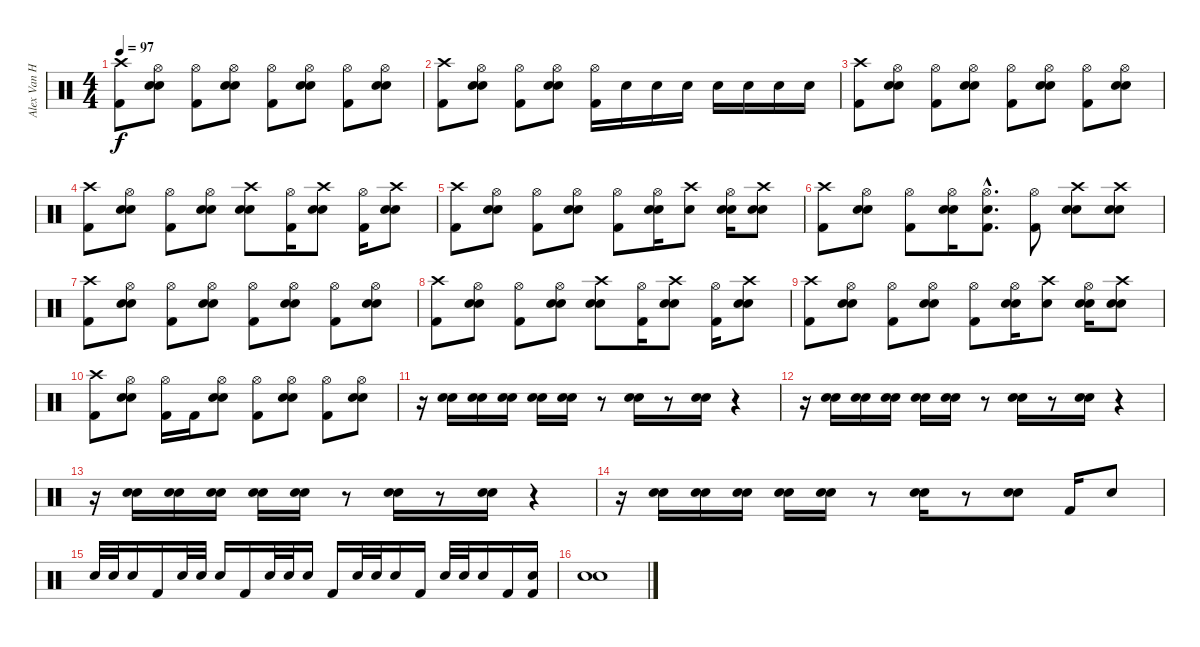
\track ("Alex Van Halen" "Alex Van H") {instrument percussion}
\staff {score}
\articulation defaults
\ts (4 4)
\tempo 97
\clef neutral
\ks c
("Crash high (hit)" "Kick (hit) 2").8{dy f} ("Hi-Hat (open)" "Snare (hit) 2" "Electric Snare (hit)").8 ("Hi-Hat (open)" "Kick (hit) 2").8 ("Hi-Hat (open)" "Snare (hit) 2" "Electric Snare (hit)").8 ("Hi-Hat (open)" "Kick (hit) 2").8 ("Hi-Hat (open)" "Snare (hit) 2" "Electric Snare (hit)").8 ("Hi-Hat (open)" "Kick (hit) 2").8 ("Hi-Hat (open)" "Snare (hit) 2" "Electric Snare (hit)").8 |
("Crash high (hit)" "Kick (hit) 2").8 ("Hi-Hat (open)" "Snare (hit) 2" "Electric Snare (hit)").8 ("Hi-Hat (open)" "Kick (hit) 2").8 ("Hi-Hat (open)" "Snare (hit) 2" "Electric Snare (hit)").8 ("Hi-Hat (open)" "Kick (hit) 2").16 "Snare (hit) 2".16 "Electric Snare (hit)".16 "Electric Snare (hit)".16 "Electric Snare (hit)".16 "Electric Snare (hit)".16 "Electric Snare (hit)".16 "Electric Snare (hit)".16 |
("Crash high (hit)" "Kick (hit) 2").8 ("Hi-Hat (open)" "Snare (hit) 2" "Electric Snare (hit)").8 ("Hi-Hat (open)" "Kick (hit) 2").8 ("Hi-Hat (open)" "Snare (hit) 2" "Electric Snare (hit)").8 ("Hi-Hat (open)" "Kick (hit) 2").8 ("Hi-Hat (open)" "Snare (hit) 2" "Electric Snare (hit)").8 ("Hi-Hat (open)" "Kick (hit) 2").8 ("Hi-Hat (open)" "Snare (hit) 2" "Electric Snare (hit)").8 |
("Crash high (hit)" "Kick (hit) 2").8 ("Hi-Hat (open)" "Snare (hit) 2" "Electric Snare (hit)").8 ("Hi-Hat (open)" "Kick (hit) 2").8 ("Hi-Hat (open)" "Snare (hit) 2" "Electric Snare (hit)").8 ("Crash high (hit)" "Snare (hit) 2" "Electric Snare (hit)").8 ("Hi-Hat (open)" "Kick (hit) 2").16 ("Crash high (hit)" "Snare (hit) 2" "Electric Snare (hit)").8 ("Hi-Hat (open)" "Kick (hit) 2").16 ("Crash high (hit)" "Snare (hit) 2" "Electric Snare (hit)").8 |
("Crash high (hit)" "Kick (hit) 2").8 ("Hi-Hat (open)" "Snare (hit) 2" "Electric Snare (hit)").8 ("Hi-Hat (open)" "Kick (hit) 2").8 ("Hi-Hat (open)" "Snare (hit) 2" "Electric Snare (hit)").8 ("Hi-Hat (open)" "Kick (hit) 2").8 ("Hi-Hat (open)" "Snare (hit) 2" "Electric Snare (hit)").16 ("Crash high (hit)" "Electric Snare (hit)").8 ("Hi-Hat (open)" "Snare (hit) 2" "Electric Snare (hit)").16 ("Crash high (hit)" "Snare (hit) 2" "Electric Snare (hit)").8 |
("Crash high (hit)" "Kick (hit) 2").8 ("Hi-Hat (open)" "Snare (hit) 2" "Electric Snare (hit)").8 ("Hi-Hat (open)" "Kick (hit) 2").8 ("Hi-Hat (open)" "Snare (hit) 2" "Electric Snare (hit)").16 ("Hi-Hat (open)"{hac} "Electric Snare (hit)"{hac} "Kick (hit) 2"{hac}).8{d} ("Hi-Hat (open)" "Kick (hit) 2").8 ("Crash high (hit)" "Snare (hit) 2" "Electric Snare (hit)").8 ("Crash high (hit)" "Snare (hit) 2" "Electric Snare (hit)").8 |
("Crash high (hit)" "Kick (hit) 2").8 ("Hi-Hat (open)" "Snare (hit) 2" "Electric Snare (hit)").8 ("Hi-Hat (open)" "Kick (hit) 2").8 ("Hi-Hat (open)" "Snare (hit) 2" "Electric Snare (hit)").8 ("Hi-Hat (open)" "Kick (hit) 2").8 ("Hi-Hat (open)" "Snare (hit) 2" "Electric Snare (hit)").8 ("Hi-Hat (open)" "Kick (hit) 2").8 ("Hi-Hat (open)" "Snare (hit) 2" "Electric Snare (hit)").8 |
("Crash high (hit)" "Kick (hit) 2").8 ("Hi-Hat (open)" "Snare (hit) 2" "Electric Snare (hit)").8 ("Hi-Hat (open)" "Kick (hit) 2").8 ("Hi-Hat (open)" "Snare (hit) 2" "Electric Snare (hit)").8 ("Crash high (hit)" "Snare (hit) 2" "Electric Snare (hit)").8 ("Hi-Hat (open)" "Kick (hit) 2").16 ("Crash high (hit)" "Snare (hit) 2" "Electric Snare (hit)").8 ("Hi-Hat (open)" "Kick (hit) 2").16 ("Crash high (hit)" "Snare (hit) 2" "Electric Snare (hit)").8 |
("Crash high (hit)" "Kick (hit) 2").8 ("Hi-Hat (open)" "Snare (hit) 2" "Electric Snare (hit)").8 ("Hi-Hat (open)" "Kick (hit) 2").8 ("Hi-Hat (open)" "Snare (hit) 2" "Electric Snare (hit)").8 ("Hi-Hat (open)" "Kick (hit) 2").8 ("Hi-Hat (open)" "Snare (hit) 2" "Electric Snare (hit)").16 ("Crash high (hit)" "Electric Snare (hit)").8 ("Hi-Hat (open)" "Snare (hit) 2" "Electric Snare (hit)").16 ("Crash high (hit)" "Snare (hit) 2" "Electric Snare (hit)").8 |
("Crash high (hit)" "Kick (hit) 2").8 ("Hi-Hat (open)" "Snare (hit) 2" "Electric Snare (hit)").8 ("Hi-Hat (open)" "Kick (hit) 2").16 "Kick (hit) 2".16 ("Hi-Hat (open)" "Electric Snare (hit)" "Snare (hit) 2").8 ("Hi-Hat (open)" "Kick (hit) 2").8 ("Hi-Hat (open)" "Snare (hit) 2" "Electric Snare (hit)").8 ("Hi-Hat (open)" "Kick (hit) 2").8 ("Hi-Hat (open)" "Snare (hit) 2" "Electric Snare (hit)").8 |
r.16 ("Snare (hit) 2" "Electric Snare (hit)").16 ("Snare (hit) 2" "Electric Snare (hit)").16 ("Snare (hit) 2" "Electric Snare (hit)").16 ("Snare (hit) 2" "Electric Snare (hit)").16 ("Snare (hit) 2" "Electric Snare (hit)").16 r.8 ("Snare (hit) 2" "Electric Snare (hit)").16 r.8 ("Snare (hit) 2" "Electric Snare (hit)").16 r.4 |
r.16 ("Snare (hit) 2" "Electric Snare (hit)").16 ("Snare (hit) 2" "Electric Snare (hit)").16 ("Snare (hit) 2" "Electric Snare (hit)").16 ("Snare (hit) 2" "Electric Snare (hit)").16 ("Snare (hit) 2" "Electric Snare (hit)").16 r.8 ("Snare (hit) 2" "Electric Snare (hit)").16 r.8 ("Snare (hit) 2" "Electric Snare (hit)").16 r.4 |
r.16 ("Snare (hit) 2" "Electric Snare (hit)").16 ("Snare (hit) 2" "Electric Snare (hit)").16 ("Snare (hit) 2" "Electric Snare (hit)").16 ("Snare (hit) 2" "Electric Snare (hit)").16 ("Snare (hit) 2" "Electric Snare (hit)").16 r.8 ("Snare (hit) 2" "Electric Snare (hit)").16 r.8 ("Snare (hit) 2" "Electric Snare (hit)").16 r.4 |
r.16 ("Snare (hit) 2" "Electric Snare (hit)").16 ("Snare (hit) 2" "Electric Snare (hit)").16 ("Snare (hit) 2" "Electric Snare (hit)").16 ("Snare (hit) 2" "Electric Snare (hit)").16 ("Snare (hit) 2" "Electric Snare (hit)").16 r.8 ("Snare (hit) 2" "Electric Snare (hit)").16 r.8 ("Snare (hit) 2" "Electric Snare (hit)").8 "Kick (hit) 2".16 "Snare (hit) 2".8 |
"Electric Snare (hit)".32 "Electric Snare (hit)".32 "Electric Snare (hit)".16 "Kick (hit) 2".16 "Electric Snare (hit)".32 "Electric Snare (hit)".32 "Electric Snare (hit)".16 "Kick (hit) 2".16 "Electric Snare (hit)".32 "Electric Snare (hit)".32 "Electric Snare (hit)".16 "Kick (hit) 2".16 "Electric Snare (hit)".32 "Electric Snare (hit)".32 "Electric Snare (hit)".16 "Kick (hit) 2".16 "Electric Snare (hit)".32 "Electric Snare (hit)".32 "Electric Snare (hit)".16 "Kick (hit) 2".16 ("Electric Snare (hit)" "Kick (hit) 2").16 |
("Electric Snare (hit)" "Snare (hit) 2").1
